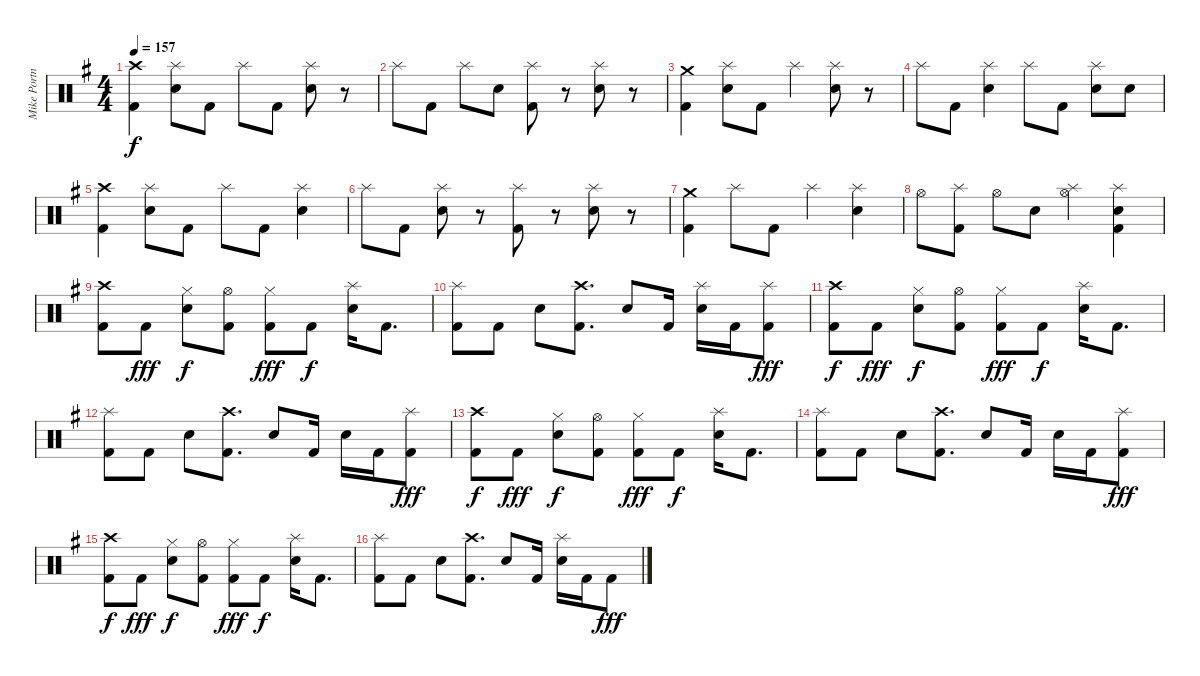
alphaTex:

\track ("Mike Portnoy" "Mike Portn") {instrument percussion}
\staff {score}
\articulation defaults
\ts (4 4)
\tempo 157
\clef neutral
\ks g
("Kick (hit) 2" "Crash high (hit)").4{dy f} ("Snare (hit) 2" "Splash (hit)").8 "Kick (hit) 2".8 "Splash (hit)".8 "Kick (hit) 2".8 ("Snare (hit) 2" "Splash (hit)").8 r.8 |
"Splash (hit)".8 "Kick (hit) 2".8 "Splash (hit)".8 "Snare (hit) 2".8 ("Kick (hit) 2" "Splash (hit)").8 r.8 ("Snare (hit) 2" "Splash (hit)").8 r.8 |
("Kick (hit) 2" "Crash medium (hit)").4 ("Snare (hit) 2" "Splash (hit)").8 "Kick (hit) 2".8 "Splash (hit)".4 ("Snare (hit) 2" "Splash (hit)").8 r.8 |
"Splash (hit)".8 "Kick (hit) 2".8 ("Snare (hit) 2" "Splash (hit)").4 "Splash (hit)".8 "Kick (hit) 2".8 ("Snare (hit) 2" "Splash (hit)").8 "Snare (hit) 2".8 |
("Kick (hit) 2" "Crash high (hit)").4 ("Snare (hit) 2" "Splash (hit)").8 "Kick (hit) 2".8 "Splash (hit)".8 "Kick (hit) 2".8 ("Snare (hit) 2" "Splash (hit)").4 |
"Splash (hit)".8 "Kick (hit) 2".8 ("Snare (hit) 2" "Splash (hit)").8 r.8 ("Kick (hit) 2" "Splash (hit)").8 r.8 ("Snare (hit) 2" "Splash (hit)").8 r.8 |
("Kick (hit) 2" "Crash medium (hit)").4 "Splash (hit)".8 "Kick (hit) 2".8 "Splash (hit)".4 ("Snare (hit) 2" "Splash (hit)").4 |
"Hi-Hat (open)".8 ("Kick (hit) 2" "Splash (hit)").8 "Hi-Hat (open)".8 "Snare (hit) 2".8 ("Hi-Hat (open)" "Splash (hit)").4 ("Kick (hit) 2" "Snare (hit) 2" "Splash (hit)").4 |
("Kick (hit) 2" "Crash high (hit)").8 "Kick (hit) 2".8{dy fff} ("Snare (hit) 2" "Hi-Hat (closed)").8{dy f} ("Kick (hit) 2" "Hi-Hat (open)").8 ("Kick (hit) 2" "Hi-Hat (closed)").8{dy fff} "Kick (hit) 2".8{dy f} ("Snare (hit) 2" "Splash (hit)").16 "Kick (hit) 2".8{d} |
("Kick (hit) 2" "Splash (hit)").8 "Kick (hit) 2".8 "Snare (hit) 2".8 ("Kick (hit) 2" "Crash high (hit)").8{d} "Snare (hit) 2".8 "Kick (hit) 2".16 ("Snare (hit) 2" "Splash (hit)").16 "Kick (hit) 2".16 ("Kick (hit) 2" "Splash (hit)").8{dy fff} |
("Kick (hit) 2" "Crash high (hit)").8{dy f} "Kick (hit) 2".8{dy fff} ("Snare (hit) 2" "Hi-Hat (closed)").8{dy f} ("Kick (hit) 2" "Hi-Hat (open)").8 ("Kick (hit) 2" "Hi-Hat (closed)").8{dy fff} "Kick (hit) 2".8{dy f} ("Snare (hit) 2" "Splash (hit)").16 "Kick (hit) 2".8{d} |
("Kick (hit) 2" "Splash (hit)").8 "Kick (hit) 2".8 "Snare (hit) 2".8 ("Kick (hit) 2" "Crash high (hit)").8{d} "Snare (hit) 2".8 "Kick (hit) 2".16 "Snare (hit) 2".16 "Kick (hit) 2".16 ("Kick (hit) 2" "Splash (hit)").8{dy fff} |
("Kick (hit) 2" "Crash high (hit)").8{dy f} "Kick (hit) 2".8{dy fff} ("Snare (hit) 2" "Hi-Hat (closed)").8{dy f} ("Kick (hit) 2" "Hi-Hat (open)").8 ("Kick (hit) 2" "Hi-Hat (closed)").8{dy fff} "Kick (hit) 2".8{dy f} ("Snare (hit) 2" "Splash (hit)").16 "Kick (hit) 2".8{d} |
("Kick (hit) 2" "Splash (hit)").8 "Kick (hit) 2".8 "Snare (hit) 2".8 ("Kick (hit) 2" "Crash high (hit)").8{d} "Snare (hit) 2".8 "Kick (hit) 2".16 "Snare (hit) 2".16 "Kick (hit) 2".16 ("Kick (hit) 2" "Splash (hit)").8{dy fff} |
("Kick (hit) 2" "Crash high (hit)").8{dy f} "Kick (hit) 2".8{dy fff} ("Snare (hit) 2" "Hi-Hat (closed)").8{dy f} ("Kick (hit) 2" "Hi-Hat (open)").8 ("Kick (hit) 2" "Hi-Hat (closed)").8{dy fff} "Kick (hit) 2".8{dy f} ("Snare (hit) 2" "Splash (hit)").16 "Kick (hit) 2".8{d} |
("Kick (hit) 2" "Splash (hit)").8 "Kick (hit) 2".8 "Snare (hit) 2".8 ("Kick (hit) 2" "Crash high (hit)").8{d} "Snare (hit) 2".8 "Kick (hit) 2".16 ("Snare (hit) 2" "Splash (hit)").16 "Kick (hit) 2".16 "Kick (hit) 2".8{dy fff}
